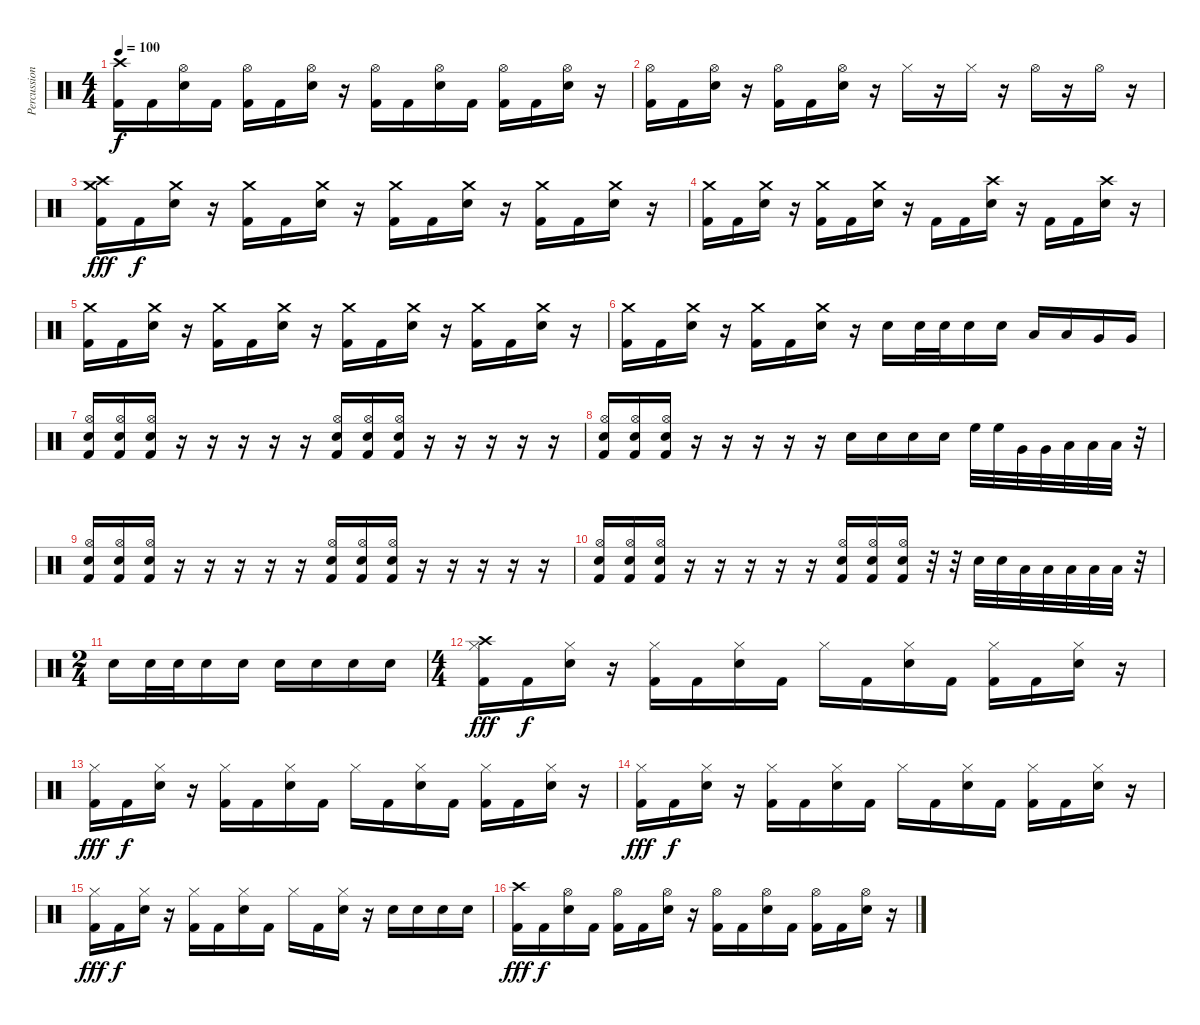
\track ("Percussion" "Percussion") {instrument percussion}
\staff {score}
\articulation defaults
\ts (4 4)
\tempo 100
\clef neutral
\ks c
("Crash high (hit)" "Kick (hit) 2").16{dy f} "Kick (hit) 2".16 ("Hi-Hat (open)" "Electric Snare (hit)").16 "Kick (hit) 2".16 ("Hi-Hat (open)" "Kick (hit) 2").16 "Kick (hit) 2".16 ("Hi-Hat (open)" "Electric Snare (hit)").16 r.16 ("Hi-Hat (open)" "Kick (hit) 2").16 "Kick (hit) 2".16 ("Hi-Hat (open)" "Electric Snare (hit)").16 "Kick (hit) 2".16 ("Hi-Hat (open)" "Kick (hit) 2").16 "Kick (hit) 2".16 ("Hi-Hat (open)" "Electric Snare (hit)").16 r.16 |
("Hi-Hat (open)" "Kick (hit) 2").16 "Kick (hit) 2".16 ("Hi-Hat (open)" "Electric Snare (hit)").16 r.16 ("Hi-Hat (open)" "Kick (hit) 2").16 "Kick (hit) 2".16 ("Hi-Hat (open)" "Electric Snare (hit)").16 r.16 "Hi-Hat (closed)".16 r.16 "Hi-Hat (closed)".16 r.16 "Hi-Hat (open)".16 r.16 "Hi-Hat (open)".16 r.16 |
("Crash high (hit)" "Crash medium (hit)" "Kick (hit) 2").16{dy fff} "Kick (hit) 2".16{dy f} ("Crash medium (hit)" "Snare (hit) 2").16 r.16 ("Crash medium (hit)" "Kick (hit) 2").16 "Kick (hit) 2".16 ("Crash medium (hit)" "Snare (hit) 2").16 r.16 ("Crash medium (hit)" "Kick (hit) 2").16 "Kick (hit) 2".16 ("Crash medium (hit)" "Snare (hit) 2").16 r.16 ("Crash medium (hit)" "Kick (hit) 2").16 "Kick (hit) 2".16 ("Crash medium (hit)" "Snare (hit) 2").16 r.16 |
("Crash medium (hit)" "Kick (hit) 2").16 "Kick (hit) 2".16 ("Crash medium (hit)" "Snare (hit) 2").16 r.16 ("Crash medium (hit)" "Kick (hit) 2").16 "Kick (hit) 2".16 ("Crash medium (hit)" "Snare (hit) 2").16 r.16 "Kick (hit) 2".16 "Kick (hit) 2".16 ("Crash high (hit)" "Snare (hit) 2").16 r.16 "Kick (hit) 2".16 "Kick (hit) 2".16 ("Crash high (hit)" "Snare (hit) 2").16 r.16 |
("Crash medium (hit)" "Kick (hit) 2").16 "Kick (hit) 2".16 ("Crash medium (hit)" "Snare (hit) 2").16 r.16 ("Crash medium (hit)" "Kick (hit) 2").16 "Kick (hit) 2".16 ("Crash medium (hit)" "Snare (hit) 2").16 r.16 ("Crash medium (hit)" "Kick (hit) 2").16 "Kick (hit) 2".16 ("Crash medium (hit)" "Snare (hit) 2").16 r.16 ("Crash medium (hit)" "Kick (hit) 2").16 "Kick (hit) 2".16 ("Crash medium (hit)" "Snare (hit) 2").16 r.16 |
("Crash medium (hit)" "Kick (hit) 2").16 "Kick (hit) 2".16 ("Crash medium (hit)" "Snare (hit) 2").16 r.16 ("Crash medium (hit)" "Kick (hit) 2").16 "Kick (hit) 2".16 ("Crash medium (hit)" "Snare (hit) 2").16 r.16 "Snare (hit) 2".16 "Snare (hit) 2".32 "Snare (hit) 2".32 "Snare (hit) 2".16 "Snare (hit) 2".16 "Low Tom (hit)".16 "Low Tom (hit)".16 "Very Low Tom (hit)".16 "Very Low Tom (hit)".16 |
("Hi-Hat (open)" "Snare (hit) 2" "Kick (hit) 2").16 ("Hi-Hat (open)" "Snare (hit) 2" "Kick (hit) 2").16 ("Hi-Hat (open)" "Snare (hit) 2" "Kick (hit) 2").16 r.16 r.16 r.16 r.16 r.16 ("Hi-Hat (open)" "Snare (hit) 2" "Kick (hit) 2").16 ("Hi-Hat (open)" "Snare (hit) 2" "Kick (hit) 2").16 ("Hi-Hat (open)" "Snare (hit) 2" "Kick (hit) 2").16 r.16 r.16 r.16 r.16 r.16 |
("Hi-Hat (open)" "Snare (hit) 2" "Kick (hit) 2").16 ("Hi-Hat (open)" "Snare (hit) 2" "Kick (hit) 2").16 ("Hi-Hat (open)" "Snare (hit) 2" "Kick (hit) 2").16 r.16 r.16 r.16 r.16 r.16 "Snare (hit) 2".16 "Snare (hit) 2".16 "Snare (hit) 2".16 "Snare (hit) 2".16 "High Floor Tom (hit)".32 "High Floor Tom (hit)".32 "Very Low Tom (hit)".32 "Very Low Tom (hit)".32 "Low Floor Tom (hit)".32 "Low Floor Tom (hit)".32 "Low Floor Tom (hit)".32 r.32 |
("Hi-Hat (open)" "Snare (hit) 2" "Kick (hit) 2").16 ("Hi-Hat (open)" "Snare (hit) 2" "Kick (hit) 2").16 ("Hi-Hat (open)" "Snare (hit) 2" "Kick (hit) 2").16 r.16 r.16 r.16 r.16 r.16 ("Hi-Hat (open)" "Snare (hit) 2" "Kick (hit) 2").16 ("Hi-Hat (open)" "Snare (hit) 2" "Kick (hit) 2").16 ("Hi-Hat (open)" "Snare (hit) 2" "Kick (hit) 2").16 r.16 r.16 r.16 r.16 r.16 |
("Hi-Hat (open)" "Snare (hit) 2" "Kick (hit) 2").16 ("Hi-Hat (open)" "Snare (hit) 2" "Kick (hit) 2").16 ("Hi-Hat (open)" "Snare (hit) 2" "Kick (hit) 2").16 r.16 r.16 r.16 r.16 r.16 ("Hi-Hat (open)" "Snare (hit) 2" "Kick (hit) 2").16 ("Hi-Hat (open)" "Snare (hit) 2" "Kick (hit) 2").16 ("Hi-Hat (open)" "Snare (hit) 2" "Kick (hit) 2").16 r.32 r.32 "Snare (hit) 2".32 "Snare (hit) 2".32 "Low Tom (hit)".32 "Low Tom (hit)".32 "Low Floor Tom (hit)".32 "Low Floor Tom (hit)".32 "Low Floor Tom (hit)".32 r.32 |
\ts (2 4)
"Snare (hit) 2".16 "Snare (hit) 2".32 "Snare (hit) 2".32 "Snare (hit) 2".16 "Snare (hit) 2".16 "Snare (hit) 2".16 "Snare (hit) 2".16 "Snare (hit) 2".16 "Snare (hit) 2".16 |
\ts (4 4)
("Crash high (hit)" "Hi-Hat (closed)" "Kick (hit) 2").16{dy fff} "Kick (hit) 2".16{dy f} ("Hi-Hat (closed)" "Snare (hit) 2").16 r.16 ("Hi-Hat (closed)" "Kick (hit) 2").16 "Kick (hit) 2".16 ("Hi-Hat (closed)" "Snare (hit) 2").16 "Kick (hit) 2".16 "Hi-Hat (closed)".16 "Kick (hit) 2".16 ("Hi-Hat (closed)" "Snare (hit) 2").16 "Kick (hit) 2".16 ("Hi-Hat (closed)" "Kick (hit) 2").16 "Kick (hit) 2".16 ("Hi-Hat (closed)" "Snare (hit) 2").16 r.16 |
("Hi-Hat (closed)" "Kick (hit) 2").16{dy fff} "Kick (hit) 2".16{dy f} ("Hi-Hat (closed)" "Snare (hit) 2").16 r.16 ("Hi-Hat (closed)" "Kick (hit) 2").16 "Kick (hit) 2".16 ("Hi-Hat (closed)" "Snare (hit) 2").16 "Kick (hit) 2".16 "Hi-Hat (closed)".16 "Kick (hit) 2".16 ("Hi-Hat (closed)" "Snare (hit) 2").16 "Kick (hit) 2".16 ("Hi-Hat (closed)" "Kick (hit) 2").16 "Kick (hit) 2".16 ("Hi-Hat (closed)" "Snare (hit) 2").16 r.16 |
("Hi-Hat (closed)" "Kick (hit) 2").16{dy fff} "Kick (hit) 2".16{dy f} ("Hi-Hat (closed)" "Snare (hit) 2").16 r.16 ("Hi-Hat (closed)" "Kick (hit) 2").16 "Kick (hit) 2".16 ("Hi-Hat (closed)" "Snare (hit) 2").16 "Kick (hit) 2".16 "Hi-Hat (closed)".16 "Kick (hit) 2".16 ("Hi-Hat (closed)" "Snare (hit) 2").16 "Kick (hit) 2".16 ("Hi-Hat (closed)" "Kick (hit) 2").16 "Kick (hit) 2".16 ("Hi-Hat (closed)" "Snare (hit) 2").16 r.16 |
("Hi-Hat (closed)" "Kick (hit) 2").16{dy fff} "Kick (hit) 2".16{dy f} ("Hi-Hat (closed)" "Snare (hit) 2").16 r.16 ("Hi-Hat (closed)" "Kick (hit) 2").16 "Kick (hit) 2".16 ("Hi-Hat (closed)" "Snare (hit) 2").16 "Kick (hit) 2".16 "Hi-Hat (closed)".16 "Kick (hit) 2".16 ("Hi-Hat (closed)" "Snare (hit) 2").16 r.16 "Snare (hit) 2".16 "Snare (hit) 2".16 "Snare (hit) 2".16 "Snare (hit) 2".16 |
("Crash high (hit)" "Kick (hit) 2").16{dy fff} "Kick (hit) 2".16{dy f} ("Hi-Hat (open)" "Electric Snare (hit)").16 "Kick (hit) 2".16 ("Hi-Hat (open)" "Kick (hit) 2").16 "Kick (hit) 2".16 ("Hi-Hat (open)" "Electric Snare (hit)").16 r.16 ("Hi-Hat (open)" "Kick (hit) 2").16 "Kick (hit) 2".16 ("Hi-Hat (open)" "Electric Snare (hit)").16 "Kick (hit) 2".16 ("Hi-Hat (open)" "Kick (hit) 2").16 "Kick (hit) 2".16 ("Hi-Hat (open)" "Electric Snare (hit)").16 r.16
